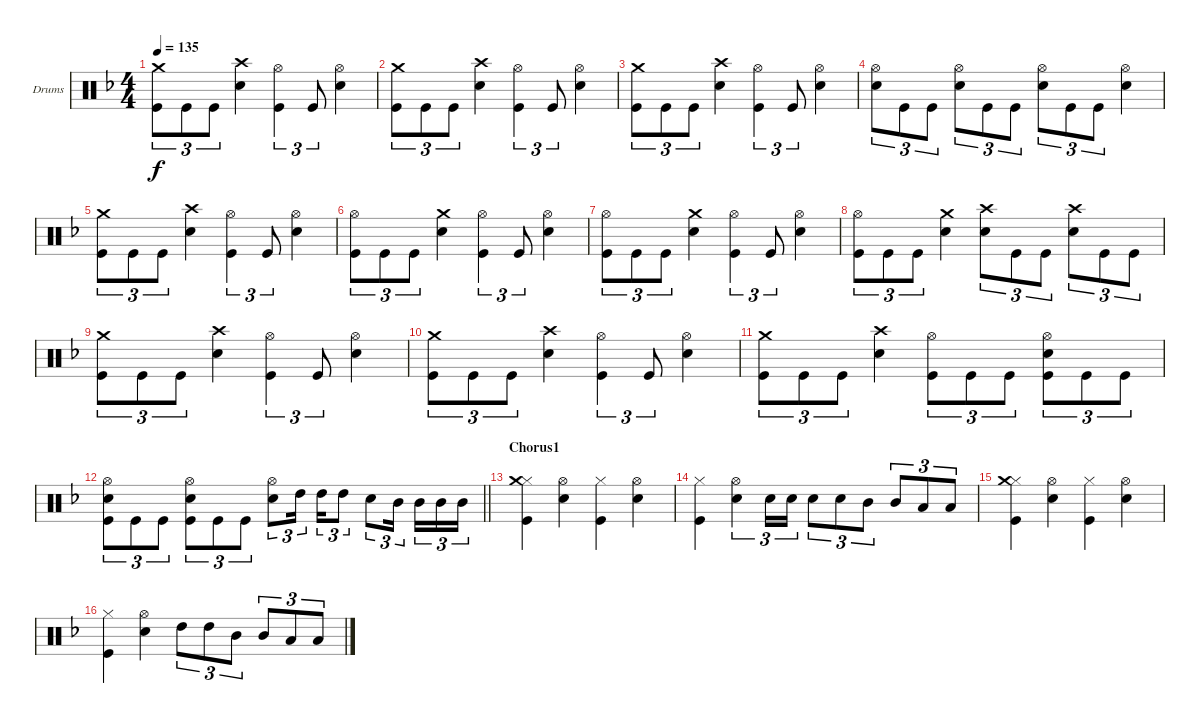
\bracketExtendMode groupsimilarinstruments
\firstSystemTrackNameOrientation horizontal
\otherSystemsTrackNameOrientation horizontal
\track ("drums (Anton Zulganov)" "Drums") {instrument percussion}
\staff {score}
\articulation defaults
\ts (4 4)
\tempo 135
\clef neutral
\ks dminor
("Kick (hit)" "Crash medium (hit)").8{tu (3 2) dy f} "Kick (hit)".8{tu (3 2)} "Kick (hit)".8{tu (3 2)} ("Snare (hit) 2" "Crash high (hit)").4 ("Hi-Hat (open)" "Kick (hit)").4{tu (3 2)} "Kick (hit)".8{tu (3 2)} ("Hi-Hat (open)" "Snare (hit) 2").4 |
("Kick (hit)" "Crash medium (hit)").8{tu (3 2)} "Kick (hit)".8{tu (3 2)} "Kick (hit)".8{tu (3 2)} ("Snare (hit) 2" "Crash high (hit)").4 ("Hi-Hat (open)" "Kick (hit)").4{tu (3 2)} "Kick (hit)".8{tu (3 2)} ("Hi-Hat (open)" "Snare (hit) 2").4 |
("Kick (hit)" "Crash medium (hit)").8{tu (3 2)} "Kick (hit)".8{tu (3 2)} "Kick (hit)".8{tu (3 2)} ("Snare (hit) 2" "Crash high (hit)").4 ("Hi-Hat (open)" "Kick (hit)").4{tu (3 2)} "Kick (hit)".8{tu (3 2)} ("Hi-Hat (open)" "Snare (hit) 2").4 |
("Snare (hit) 2" "Hi-Hat (open)").8{tu (3 2)} "Kick (hit)".8{tu (3 2)} "Kick (hit)".8{tu (3 2)} ("Snare (hit) 2" "Hi-Hat (open)").8{tu (3 2)} "Kick (hit)".8{tu (3 2)} "Kick (hit)".8{tu (3 2)} ("Snare (hit) 2" "Hi-Hat (open)").8{tu (3 2)} "Kick (hit)".8{tu (3 2)} "Kick (hit)".8{tu (3 2)} ("Snare (hit) 2" "Hi-Hat (open)").4 |
("Kick (hit)" "Crash medium (hit)").8{tu (3 2)} "Kick (hit)".8{tu (3 2)} "Kick (hit)".8{tu (3 2)} ("Snare (hit) 2" "Crash high (hit)").4 ("Hi-Hat (open)" "Kick (hit)").4{tu (3 2)} "Kick (hit)".8{tu (3 2)} ("Hi-Hat (open)" "Snare (hit) 2").4 |
("Hi-Hat (open)" "Kick (hit)").8{tu (3 2)} "Kick (hit)".8{tu (3 2)} "Kick (hit)".8{tu (3 2)} ("Snare (hit) 2" "Crash medium (hit)").4 ("Hi-Hat (open)" "Kick (hit)").4{tu (3 2)} "Kick (hit)".8{tu (3 2)} ("Hi-Hat (open)" "Snare (hit) 2").4 |
("Hi-Hat (open)" "Kick (hit)").8{tu (3 2)} "Kick (hit)".8{tu (3 2)} "Kick (hit)".8{tu (3 2)} ("Snare (hit) 2" "Crash medium (hit)").4 ("Hi-Hat (open)" "Kick (hit)").4{tu (3 2)} "Kick (hit)".8{tu (3 2)} ("Hi-Hat (open)" "Snare (hit) 2").4 |
("Hi-Hat (open)" "Kick (hit)").8{tu (3 2)} "Kick (hit)".8{tu (3 2)} "Kick (hit)".8{tu (3 2)} ("Snare (hit) 2" "Crash medium (hit)").4 ("Snare (hit) 2" "Crash high (hit)").8{tu (3 2)} "Kick (hit)".8{tu (3 2)} "Kick (hit)".8{tu (3 2)} ("Snare (hit) 2" "Crash high (hit)").8{tu (3 2)} "Kick (hit)".8{tu (3 2)} "Kick (hit)".8{tu (3 2)} |
("Kick (hit)" "Crash medium (hit)").8{tu (3 2)} "Kick (hit)".8{tu (3 2)} "Kick (hit)".8{tu (3 2)} ("Snare (hit) 2" "Crash high (hit)").4 ("Hi-Hat (open)" "Kick (hit)").4{tu (3 2)} "Kick (hit)".8{tu (3 2)} ("Hi-Hat (open)" "Snare (hit) 2").4 |
("Kick (hit)" "Crash medium (hit)").8{tu (3 2)} "Kick (hit)".8{tu (3 2)} "Kick (hit)".8{tu (3 2)} ("Snare (hit) 2" "Crash high (hit)").4 ("Hi-Hat (open)" "Kick (hit)").4{tu (3 2)} "Kick (hit)".8{tu (3 2)} ("Hi-Hat (open)" "Snare (hit) 2").4 |
("Kick (hit)" "Crash medium (hit)").8{tu (3 2)} "Kick (hit)".8{tu (3 2)} "Kick (hit)".8{tu (3 2)} ("Snare (hit) 2" "Crash high (hit)").4 ("Hi-Hat (open)" "Kick (hit)").8{tu (3 2)} "Kick (hit)".8{tu (3 2)} "Kick (hit)".8{tu (3 2)} ("Hi-Hat (open)" "Snare (hit) 2" "Kick (hit)").8{tu (3 2)} "Kick (hit)".8{tu (3 2)} "Kick (hit)".8{tu (3 2)} |
\barLineRight lightlight
("Kick (hit)" "Snare (hit) 2" "Hi-Hat (open)").8{tu (3 2)} "Kick (hit)".8{tu (3 2)} "Kick (hit)".8{tu (3 2)} ("Hi-Hat (open)" "Kick (hit)" "Snare (hit) 2").8{tu (3 2)} "Kick (hit)".8{tu (3 2)} "Kick (hit)".8{tu (3 2)} ("Hi-Hat (open)" "Snare (hit) 2").8{tu (3 2)} "High Tom (hit)".16{tu (3 2)} "High Tom (hit)".16{tu (3 2)} "High Tom (hit)".8{tu (3 2)} "Snare (hit) 2".8{tu (3 2)} "Mid Tom (hit)".16{tu (3 2)} "Mid Tom (hit)".16{tu (3 2)} "Mid Tom (hit)".16{tu (3 2)} "Mid Tom (hit)".16{tu (3 2)} |
\section ("" "Chorus1")
("Hi-Hat (closed)" "Kick (hit)" "Crash medium (hit)").4 ("Hi-Hat (open)" "Snare (hit) 2").4 ("Hi-Hat (closed)" "Kick (hit)").4 ("Hi-Hat (open)" "Snare (hit) 2").4 |
("Hi-Hat (closed)" "Kick (hit)").4 ("Hi-Hat (open)" "Snare (hit) 2").4{tu (3 2)} "Snare (hit) 2".16{tu (3 2)} "Snare (hit) 2".16{tu (3 2)} "Snare (hit) 2".8{tu (3 2)} "Snare (hit) 2".8{tu (3 2)} "Mid Tom (hit)".8{tu (3 2)} "Mid Tom (hit)".8{tu (3 2)} "Low Tom (hit)".8{tu (3 2)} "Low Tom (hit)".8{tu (3 2)} |
("Hi-Hat (closed)" "Kick (hit)" "Crash medium (hit)").4 ("Hi-Hat (open)" "Snare (hit) 2").4 ("Hi-Hat (closed)" "Kick (hit)").4 ("Hi-Hat (open)" "Snare (hit) 2").4 |
("Hi-Hat (closed)" "Kick (hit)").4 ("Hi-Hat (open)" "Snare (hit) 2").4 "High Tom (hit)".8{tu (3 2)} "High Tom (hit)".8{tu (3 2)} "Mid Tom (hit)".8{tu (3 2)} "Mid Tom (hit)".8{tu (3 2)} "Low Tom (hit)".8{tu (3 2)} "Low Tom (hit)".8{tu (3 2)}
